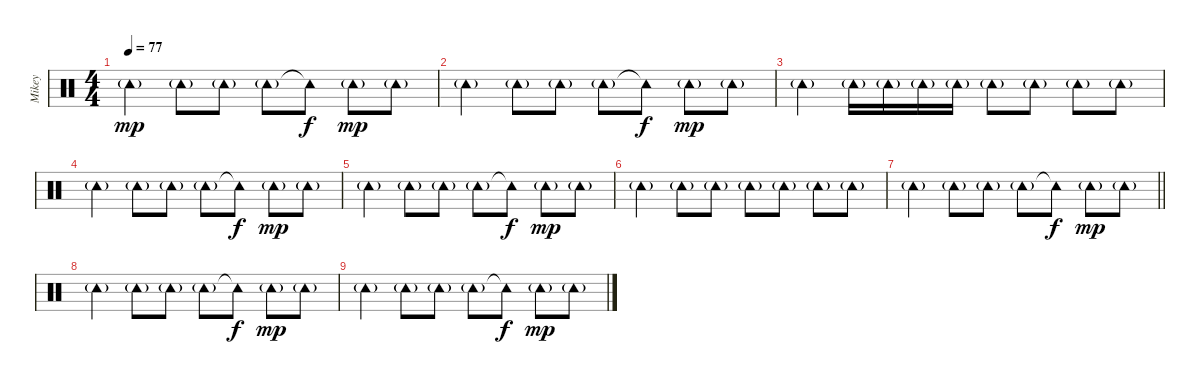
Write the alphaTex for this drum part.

\track ("Mikey" "Mikey") {instrument percussion}
\staff {score}
\articulation defaults
\ts (4 4)
\tempo 77
\clef neutral
\ks c "Tambourine (hit)"{g}.4{dy mp} "Tambourine (hit)"{g}.8 "Tambourine (hit)"{g}.8 "Tambourine (hit)"{g}.8 "Tambourine (hit)"{t}.8{dy f} "Tambourine (hit)"{g}.8{dy mp} "Tambourine (hit)"{g}.8
|
"Tambourine (hit)"{g}.4 "Tambourine (hit)"{g}.8 "Tambourine (hit)"{g}.8 "Tambourine (hit)"{g}.8 "Tambourine (hit)"{t}.8{dy f} "Tambourine (hit)"{g}.8{dy mp} "Tambourine (hit)"{g}.8 |
"Tambourine (hit)"{g}.4 "Tambourine (hit)"{g}.16 "Tambourine (hit)"{g}.16 "Tambourine (hit)"{g}.16 "Tambourine (hit)"{g}.16 "Tambourine (hit)"{g}.8 "Tambourine (hit)"{g}.8 "Tambourine (hit)"{g}.8 "Tambourine (hit)"{g}.8 |
"Tambourine (hit)"{g}.4 "Tambourine (hit)"{g}.8 "Tambourine (hit)"{g}.8 "Tambourine (hit)"{g}.8 "Tambourine (hit)"{t}.8{dy f} "Tambourine (hit)"{g}.8{dy mp} "Tambourine (hit)"{g}.8 |
"Tambourine (hit)"{g}.4 "Tambourine (hit)"{g}.8 "Tambourine (hit)"{g}.8 "Tambourine (hit)"{g}.8 "Tambourine (hit)"{t}.8{dy f} "Tambourine (hit)"{g}.8{dy mp} "Tambourine (hit)"{g}.8 |
"Tambourine (hit)"{g}.4 "Tambourine (hit)"{g}.8 "Tambourine (hit)"{g}.8 "Tambourine (hit)"{g}.8 "Tambourine (hit)"{g}.8 "Tambourine (hit)"{g}.8 "Tambourine (hit)"{g}.8 |
\barLineRight lightlight "Tambourine (hit)"{g}.4 "Tambourine (hit)"{g}.8 "Tambourine (hit)"{g}.8 "Tambourine (hit)"{g}.8 "Tambourine (hit)"{t}.8{dy f} "Tambourine (hit)"{g}.8{dy mp} "Tambourine (hit)"{g}.8
|
"Tambourine (hit)"{g}.4 "Tambourine (hit)"{g}.8 "Tambourine (hit)"{g}.8 "Tambourine (hit)"{g}.8 "Tambourine (hit)"{t}.8{dy f} "Tambourine (hit)"{g}.8{dy mp} "Tambourine (hit)"{g}.8 |
"Tambourine (hit)"{g}.4 "Tambourine (hit)"{g}.8 "Tambourine (hit)"{g}.8 "Tambourine (hit)"{g}.8 "Tambourine (hit)"{t}.8{dy f} "Tambourine (hit)"{g}.8{dy mp} "Tambourine (hit)"{g}.8
